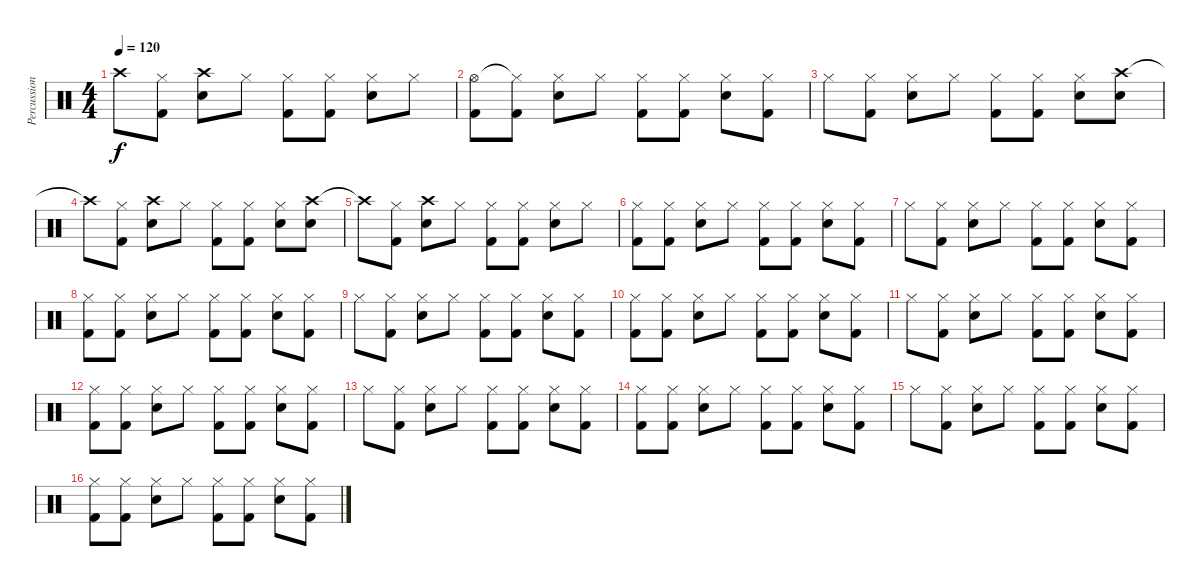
\track ("Percussion" "Percussion") {instrument percussion}
\staff {score}
\articulation defaults
\ts (4 4)
\tempo 120
\clef neutral
\ks c "Crash high (hit)"{t}.8{dy f}
("Hi-Hat (closed)" "Kick (hit) 2").8 ("Crash high (hit)" "Snare (hit) 2").8 "Hi-Hat (closed)".8 ("Hi-Hat (closed)" "Kick (hit) 2").8 ("Hi-Hat (closed)" "Kick (hit) 2").8 ("Hi-Hat (closed)" "Snare (hit) 2").8 "Hi-Hat (closed)".8 |
("Hi-Hat (open)" "Kick (hit) 2").8 ("Hi-Hat (closed)"{t} "Kick (hit) 2").8 ("Hi-Hat (closed)" "Snare (hit) 2").8 "Hi-Hat (closed)".8 ("Hi-Hat (closed)" "Kick (hit) 2").8 ("Hi-Hat (closed)" "Kick (hit) 2").8 ("Hi-Hat (closed)" "Snare (hit) 2").8 ("Hi-Hat (closed)" "Kick (hit) 2").8 |
"Hi-Hat (closed)".8 ("Hi-Hat (closed)" "Kick (hit) 2").8 ("Hi-Hat (closed)" "Snare (hit) 2").8 "Hi-Hat (closed)".8 ("Hi-Hat (closed)" "Kick (hit) 2").8 ("Hi-Hat (closed)" "Kick (hit) 2").8 ("Hi-Hat (closed)" "Snare (hit) 2").8 ("Crash high (hit)" "Snare (hit) 2").8 |
"Crash high (hit)"{t}.8 ("Hi-Hat (closed)" "Kick (hit) 2").8 ("Crash high (hit)" "Snare (hit) 2").8 "Hi-Hat (closed)".8 ("Hi-Hat (closed)" "Kick (hit) 2").8 ("Hi-Hat (closed)" "Kick (hit) 2").8 ("Hi-Hat (closed)" "Snare (hit) 2").8 ("Crash high (hit)" "Snare (hit) 2").8 |
"Crash high (hit)"{t}.8 ("Hi-Hat (closed)" "Kick (hit) 2").8 ("Crash high (hit)" "Snare (hit) 2").8 "Hi-Hat (closed)".8 ("Hi-Hat (closed)" "Kick (hit) 2").8 ("Hi-Hat (closed)" "Kick (hit) 2").8 ("Hi-Hat (closed)" "Snare (hit) 2").8 "Hi-Hat (closed)".8 |
("Hi-Hat (closed)" "Kick (hit) 2").8 ("Hi-Hat (closed)" "Kick (hit) 2").8 ("Hi-Hat (closed)" "Snare (hit) 2").8 "Hi-Hat (closed)".8 ("Hi-Hat (closed)" "Kick (hit) 2").8 ("Hi-Hat (closed)" "Kick (hit) 2").8 ("Hi-Hat (closed)" "Snare (hit) 2").8 ("Hi-Hat (closed)" "Kick (hit) 2").8 |
"Hi-Hat (closed)".8 ("Hi-Hat (closed)" "Kick (hit) 2").8 ("Hi-Hat (closed)" "Snare (hit) 2").8 "Hi-Hat (closed)".8 ("Hi-Hat (closed)" "Kick (hit) 2").8 ("Hi-Hat (closed)" "Kick (hit) 2").8 ("Hi-Hat (closed)" "Snare (hit) 2").8 ("Hi-Hat (closed)" "Kick (hit) 2").8 |
("Hi-Hat (closed)" "Kick (hit) 2").8 ("Hi-Hat (closed)" "Kick (hit) 2").8 ("Hi-Hat (closed)" "Snare (hit) 2").8 "Hi-Hat (closed)".8 ("Hi-Hat (closed)" "Kick (hit) 2").8 ("Hi-Hat (closed)" "Kick (hit) 2").8 ("Hi-Hat (closed)" "Snare (hit) 2").8 ("Hi-Hat (closed)" "Kick (hit) 2").8 |
"Hi-Hat (closed)".8 ("Hi-Hat (closed)" "Kick (hit) 2").8 ("Hi-Hat (closed)" "Snare (hit) 2").8 "Hi-Hat (closed)".8 ("Hi-Hat (closed)" "Kick (hit) 2").8 ("Hi-Hat (closed)" "Kick (hit) 2").8 ("Hi-Hat (closed)" "Snare (hit) 2").8 ("Hi-Hat (closed)" "Kick (hit) 2").8 |
("Hi-Hat (closed)" "Kick (hit) 2").8 ("Hi-Hat (closed)" "Kick (hit) 2").8 ("Hi-Hat (closed)" "Snare (hit) 2").8 "Hi-Hat (closed)".8 ("Hi-Hat (closed)" "Kick (hit) 2").8 ("Hi-Hat (closed)" "Kick (hit) 2").8 ("Hi-Hat (closed)" "Snare (hit) 2").8 ("Hi-Hat (closed)" "Kick (hit) 2").8 |
"Hi-Hat (closed)".8 ("Hi-Hat (closed)" "Kick (hit) 2").8 ("Hi-Hat (closed)" "Snare (hit) 2").8 "Hi-Hat (closed)".8 ("Hi-Hat (closed)" "Kick (hit) 2").8 ("Hi-Hat (closed)" "Kick (hit) 2").8 ("Hi-Hat (closed)" "Snare (hit) 2").8 ("Hi-Hat (closed)" "Kick (hit) 2").8 |
("Hi-Hat (closed)" "Kick (hit) 2").8 ("Hi-Hat (closed)" "Kick (hit) 2").8 ("Hi-Hat (closed)" "Snare (hit) 2").8 "Hi-Hat (closed)".8 ("Hi-Hat (closed)" "Kick (hit) 2").8 ("Hi-Hat (closed)" "Kick (hit) 2").8 ("Hi-Hat (closed)" "Snare (hit) 2").8 ("Hi-Hat (closed)" "Kick (hit) 2").8 |
"Hi-Hat (closed)".8 ("Hi-Hat (closed)" "Kick (hit) 2").8 ("Hi-Hat (closed)" "Snare (hit) 2").8 "Hi-Hat (closed)".8 ("Hi-Hat (closed)" "Kick (hit) 2").8 ("Hi-Hat (closed)" "Kick (hit) 2").8 ("Hi-Hat (closed)" "Snare (hit) 2").8 ("Hi-Hat (closed)" "Kick (hit) 2").8 |
("Hi-Hat (closed)" "Kick (hit) 2").8 ("Hi-Hat (closed)" "Kick (hit) 2").8 ("Hi-Hat (closed)" "Snare (hit) 2").8 "Hi-Hat (closed)".8 ("Hi-Hat (closed)" "Kick (hit) 2").8 ("Hi-Hat (closed)" "Kick (hit) 2").8 ("Hi-Hat (closed)" "Snare (hit) 2").8 ("Hi-Hat (closed)" "Kick (hit) 2").8 |
"Hi-Hat (closed)".8 ("Hi-Hat (closed)" "Kick (hit) 2").8 ("Hi-Hat (closed)" "Snare (hit) 2").8 "Hi-Hat (closed)".8 ("Hi-Hat (closed)" "Kick (hit) 2").8 ("Hi-Hat (closed)" "Kick (hit) 2").8 ("Hi-Hat (closed)" "Snare (hit) 2").8 ("Hi-Hat (closed)" "Kick (hit) 2").8 |
("Hi-Hat (closed)" "Kick (hit) 2").8 ("Hi-Hat (closed)" "Kick (hit) 2").8 ("Hi-Hat (closed)" "Snare (hit) 2").8 "Hi-Hat (closed)".8 ("Hi-Hat (closed)" "Kick (hit) 2").8 ("Hi-Hat (closed)" "Kick (hit) 2").8 ("Hi-Hat (closed)" "Snare (hit) 2").8 ("Hi-Hat (closed)" "Kick (hit) 2").8
